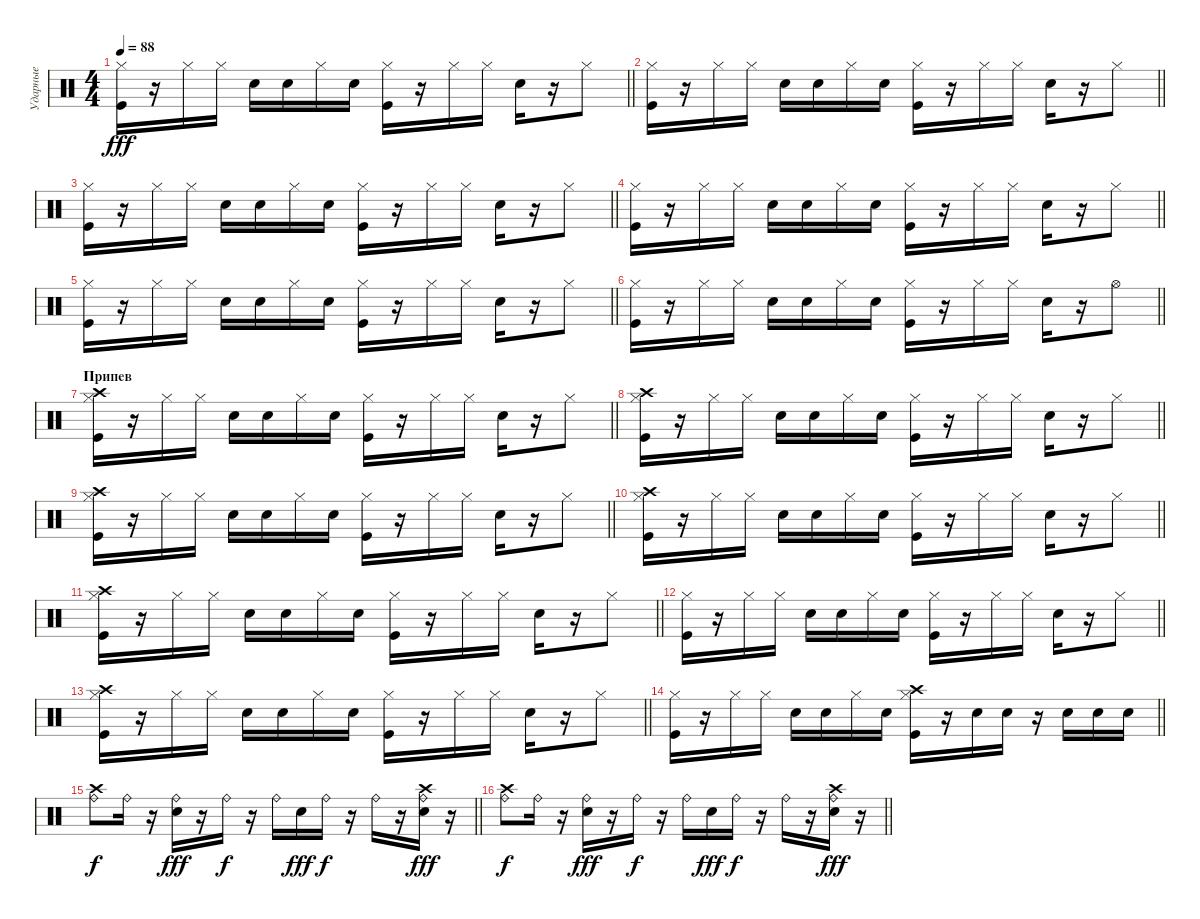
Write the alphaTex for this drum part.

\track ("Ударные" "Ударные") {solo instrument percussion}
\staff {score}
\articulation defaults
\ts (4 4)
\tempo 88
\clef neutral
\barLineRight lightlight
\ks aminor
("Hi-Hat (closed)" "Kick (hit)").16{dy fff} r.16 "Hi-Hat (closed)".16 "Hi-Hat (closed)".16 "Snare (hit) 2".16 "Snare (hit) 2".16 "Hi-Hat (closed)".16 "Snare (hit) 2".16 ("Hi-Hat (closed)" "Kick (hit)").16 r.16 "Hi-Hat (closed)".16 "Hi-Hat (closed)".16 "Snare (hit) 2".16 r.16 "Hi-Hat (closed)".8 |
\barLineRight lightlight
("Hi-Hat (closed)" "Kick (hit)").16 r.16 "Hi-Hat (closed)".16 "Hi-Hat (closed)".16 "Snare (hit) 2".16 "Snare (hit) 2".16 "Hi-Hat (closed)".16 "Snare (hit) 2".16 ("Hi-Hat (closed)" "Kick (hit)").16 r.16 "Hi-Hat (closed)".16 "Hi-Hat (closed)".16 "Snare (hit) 2".16 r.16 "Hi-Hat (closed)".8 |
\barLineRight lightlight
("Hi-Hat (closed)" "Kick (hit)").16 r.16 "Hi-Hat (closed)".16 "Hi-Hat (closed)".16 "Snare (hit) 2".16 "Snare (hit) 2".16 "Hi-Hat (closed)".16 "Snare (hit) 2".16 ("Hi-Hat (closed)" "Kick (hit)").16 r.16 "Hi-Hat (closed)".16 "Hi-Hat (closed)".16 "Snare (hit) 2".16 r.16 "Hi-Hat (closed)".8 |
\barLineRight lightlight
("Hi-Hat (closed)" "Kick (hit)").16 r.16 "Hi-Hat (closed)".16 "Hi-Hat (closed)".16 "Snare (hit) 2".16 "Snare (hit) 2".16 "Hi-Hat (closed)".16 "Snare (hit) 2".16 ("Hi-Hat (closed)" "Kick (hit)").16 r.16 "Hi-Hat (closed)".16 "Hi-Hat (closed)".16 "Snare (hit) 2".16 r.16 "Hi-Hat (closed)".8 |
\barLineRight lightlight
("Hi-Hat (closed)" "Kick (hit)").16 r.16 "Hi-Hat (closed)".16 "Hi-Hat (closed)".16 "Snare (hit) 2".16 "Snare (hit) 2".16 "Hi-Hat (closed)".16 "Snare (hit) 2".16 ("Hi-Hat (closed)" "Kick (hit)").16 r.16 "Hi-Hat (closed)".16 "Hi-Hat (closed)".16 "Snare (hit) 2".16 r.16 "Hi-Hat (closed)".8 |
\barLineRight lightlight
("Hi-Hat (closed)" "Kick (hit)").16 r.16 "Hi-Hat (closed)".16 "Hi-Hat (closed)".16 "Snare (hit) 2".16 "Snare (hit) 2".16 "Hi-Hat (closed)".16 "Snare (hit) 2".16 ("Hi-Hat (closed)" "Kick (hit)").16 r.16 "Hi-Hat (closed)".16 "Hi-Hat (closed)".16 "Snare (hit) 2".16 r.16 "Hi-Hat (open)".8 |
\section ("" "Припев")
\barLineRight lightlight
("Hi-Hat (closed)" "Kick (hit)" "Crash high (hit)").16 r.16 "Hi-Hat (closed)".16 "Hi-Hat (closed)".16 "Snare (hit) 2".16 "Snare (hit) 2".16 "Hi-Hat (closed)".16 "Snare (hit) 2".16 ("Hi-Hat (closed)" "Kick (hit)").16 r.16 "Hi-Hat (closed)".16 "Hi-Hat (closed)".16 "Snare (hit) 2".16 r.16 "Hi-Hat (closed)".8 |
\barLineRight lightlight
("Hi-Hat (closed)" "Kick (hit)" "Crash high (hit)").16 r.16 "Hi-Hat (closed)".16 "Hi-Hat (closed)".16 "Snare (hit) 2".16 "Snare (hit) 2".16 "Hi-Hat (closed)".16 "Snare (hit) 2".16 ("Hi-Hat (closed)" "Kick (hit)").16 r.16 "Hi-Hat (closed)".16 "Hi-Hat (closed)".16 "Snare (hit) 2".16 r.16 "Hi-Hat (closed)".8 |
\barLineRight lightlight
("Hi-Hat (closed)" "Kick (hit)" "Crash high (hit)").16 r.16 "Hi-Hat (closed)".16 "Hi-Hat (closed)".16 "Snare (hit) 2".16 "Snare (hit) 2".16 "Hi-Hat (closed)".16 "Snare (hit) 2".16 ("Hi-Hat (closed)" "Kick (hit)").16 r.16 "Hi-Hat (closed)".16 "Hi-Hat (closed)".16 "Snare (hit) 2".16 r.16 "Hi-Hat (closed)".8 |
\barLineRight lightlight
("Hi-Hat (closed)" "Kick (hit)" "Crash high (hit)").16 r.16 "Hi-Hat (closed)".16 "Hi-Hat (closed)".16 "Snare (hit) 2".16 "Snare (hit) 2".16 "Hi-Hat (closed)".16 "Snare (hit) 2".16 ("Hi-Hat (closed)" "Kick (hit)").16 r.16 "Hi-Hat (closed)".16 "Hi-Hat (closed)".16 "Snare (hit) 2".16 r.16 "Hi-Hat (closed)".8 |
\barLineRight lightlight
("Hi-Hat (closed)" "Kick (hit)" "Crash high (hit)").16 r.16 "Hi-Hat (closed)".16 "Hi-Hat (closed)".16 "Snare (hit) 2".16 "Snare (hit) 2".16 "Hi-Hat (closed)".16 "Snare (hit) 2".16 ("Hi-Hat (closed)" "Kick (hit)").16 r.16 "Hi-Hat (closed)".16 "Hi-Hat (closed)".16 "Snare (hit) 2".16 r.16 "Hi-Hat (closed)".8 |
\barLineRight lightlight
("Hi-Hat (closed)" "Kick (hit)").16 r.16 "Hi-Hat (closed)".16 "Hi-Hat (closed)".16 "Snare (hit) 2".16 "Snare (hit) 2".16 "Hi-Hat (closed)".16 "Snare (hit) 2".16 ("Hi-Hat (closed)" "Kick (hit)").16 r.16 "Hi-Hat (closed)".16 "Hi-Hat (closed)".16 "Snare (hit) 2".16 r.16 "Hi-Hat (closed)".8 |
\barLineRight lightlight
("Hi-Hat (closed)" "Kick (hit)" "Crash high (hit)").16 r.16 "Hi-Hat (closed)".16 "Hi-Hat (closed)".16 "Snare (hit) 2".16 "Snare (hit) 2".16 "Hi-Hat (closed)".16 "Snare (hit) 2".16 ("Hi-Hat (closed)" "Kick (hit)").16 r.16 "Hi-Hat (closed)".16 "Hi-Hat (closed)".16 "Snare (hit) 2".16 r.16 "Hi-Hat (closed)".8 |
\barLineRight lightlight
("Hi-Hat (closed)" "Kick (hit)").16 r.16 "Hi-Hat (closed)".16 "Hi-Hat (closed)".16 "Snare (hit) 2".16 "Snare (hit) 2".16 "Hi-Hat (closed)".16 "Snare (hit) 2".16 ("Hi-Hat (closed)" "Kick (hit)" "Crash high (hit)").16 r.16 "Snare (hit) 2".16 "Snare (hit) 2".16 r.16 "Snare (hit) 2".16 "Snare (hit) 2".16 "Snare (hit) 2".16 |
\barLineRight lightlight
("Ride (bell)" "Crash high (hit)").8{dy f} "Ride (bell)".16 r.16 ("Ride (bell)" "Electric Snare (hit)").16{dy fff} r.16 "Ride (bell)".16{dy f} r.16 "Ride (bell)".16 "Electric Snare (hit)".16{dy fff} "Ride (bell)".16{dy f} r.16 "Ride (bell)".16 r.16 ("Ride (bell)" "Electric Snare (hit)" "Crash high (hit)").16{dy fff} r.16 |
\barLineRight lightlight
("Ride (bell)" "Crash high (hit)").8{dy f} "Ride (bell)".16 r.16 ("Ride (bell)" "Electric Snare (hit)").16{dy fff} r.16 "Ride (bell)".16{dy f} r.16 "Ride (bell)".16 "Electric Snare (hit)".16{dy fff} "Ride (bell)".16{dy f} r.16 "Ride (bell)".16 r.16 ("Ride (bell)" "Electric Snare (hit)" "Crash high (hit)").16{dy fff} r.16
